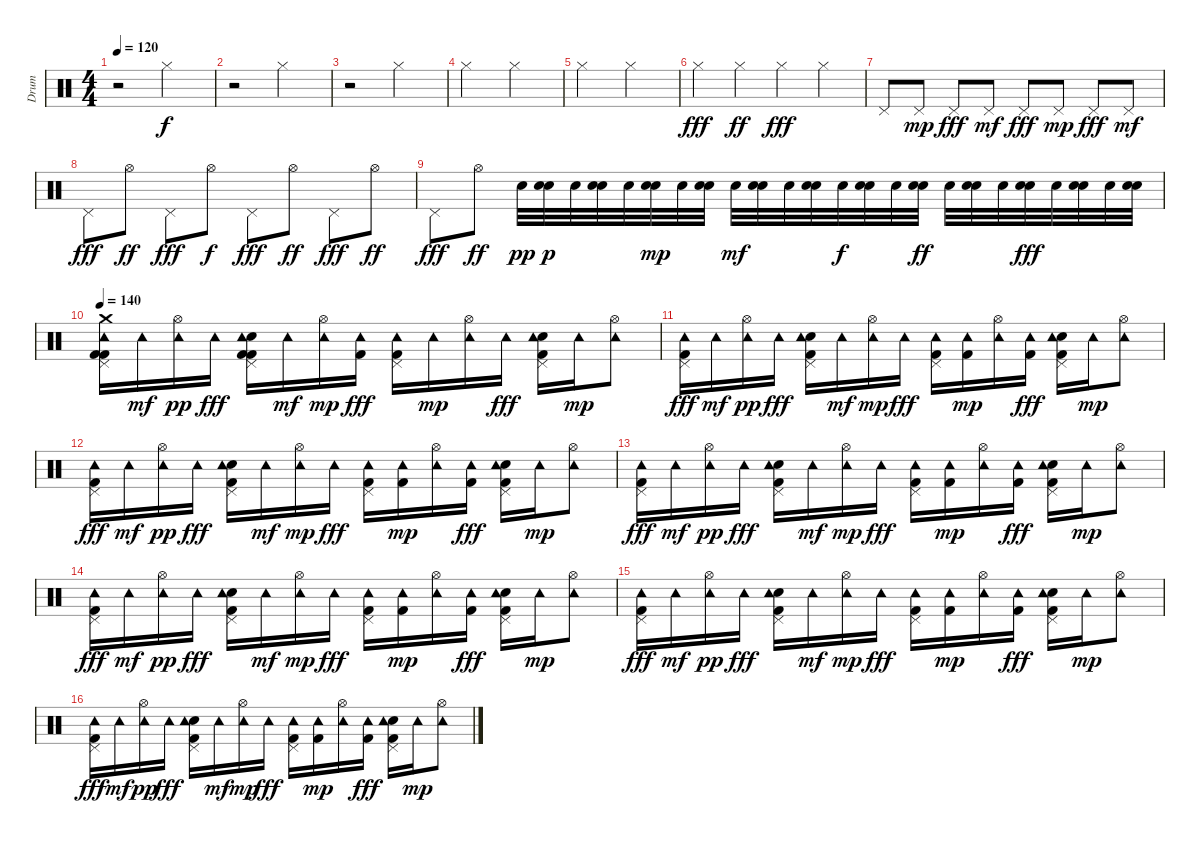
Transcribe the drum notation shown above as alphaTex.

\track ("Drum" "Drum") {instrument percussion}
\staff {score}
\articulation defaults
\ts (4 4)
\tempo 120
\clef neutral
\ks c
r.2{dy f} "Hi-Hat (closed)".2 |
r.2 "Hi-Hat (closed)".2 |
r.2 "Hi-Hat (closed)".2 |
"Hi-Hat (closed)".2 "Hi-Hat (closed)".2 |
"Hi-Hat (closed)".2 "Hi-Hat (closed)".2 |
"Hi-Hat (closed)".4{dy fff} "Hi-Hat (closed)".4{dy ff} "Hi-Hat (closed)".4{dy fff} "Hi-Hat (closed)".4 |
"Pedal Hi-Hat (hit)".8 "Pedal Hi-Hat (hit)".8{dy mp} "Pedal Hi-Hat (hit)".8{dy fff} "Pedal Hi-Hat (hit)".8{dy mf} "Pedal Hi-Hat (hit)".8{dy fff} "Pedal Hi-Hat (hit)".8{dy mp} "Pedal Hi-Hat (hit)".8{dy fff} "Pedal Hi-Hat (hit)".8{dy mf} |
"Pedal Hi-Hat (hit)".8{dy fff} "Hi-Hat (open)".8{dy ff} "Pedal Hi-Hat (hit)".8{dy fff} "Hi-Hat (open)".8{dy f} "Pedal Hi-Hat (hit)".8{dy fff} "Hi-Hat (open)".8{dy ff} "Pedal Hi-Hat (hit)".8{dy fff} "Hi-Hat (open)".8{dy ff} |
"Pedal Hi-Hat (hit)".8{dy fff} "Hi-Hat (open)".8{dy ff} "Snare (hit) 2".32{dy pp} ("Snare (hit) 2" "Snare (hit) 2").32{dy p} "Snare (hit) 2".32 ("Snare (hit) 2" "Snare (hit) 2").32 "Snare (hit) 2".32 ("Snare (hit) 2" "Snare (hit) 2").32{dy mp} "Snare (hit) 2".32 ("Snare (hit) 2" "Snare (hit) 2").32 "Snare (hit) 2".32{dy mf} ("Snare (hit) 2" "Snare (hit) 2").32 "Snare (hit) 2".32 ("Snare (hit) 2" "Snare (hit) 2").32 "Snare (hit) 2".32{dy f} ("Snare (hit) 2" "Snare (hit) 2").32 "Snare (hit) 2".32 ("Snare (hit) 2" "Snare (hit) 2").32{dy ff} "Snare (hit) 2".32 ("Snare (hit) 2" "Snare (hit) 2").32 "Snare (hit) 2".32 ("Snare (hit) 2" "Snare (hit) 2").32{dy fff} "Snare (hit) 2".32 ("Snare (hit) 2" "Snare (hit) 2").32 "Snare (hit) 2".32 ("Snare (hit) 2" "Snare (hit) 2").32 |
\tempo 140
("Crash medium (hit)" "Kick (hit) 2" "Tambourine (hit)" "Kick (hit) 2" "Pedal Hi-Hat (hit)").16 "Tambourine (hit)".16{dy mf} ("Hi-Hat (open)" "Tambourine (hit)").16{dy pp} "Tambourine (hit)".16{dy fff} ("Kick (hit) 2" "Snare (hit) 2" "Tambourine (hit)" "Kick (hit) 2" "Pedal Hi-Hat (hit)").16 "Tambourine (hit)".16{dy mf} ("Hi-Hat (open)" "Tambourine (hit)").16{dy mp} ("Kick (hit) 2" "Tambourine (hit)").16{dy fff} ("Tambourine (hit)" "Kick (hit) 2" "Pedal Hi-Hat (hit)").16 "Tambourine (hit)".16{dy mp} ("Hi-Hat (open)" "Tambourine (hit)").16 "Tambourine (hit)".16{dy fff} ("Snare (hit) 2" "Tambourine (hit)" "Kick (hit) 2" "Pedal Hi-Hat (hit)").16 "Tambourine (hit)".16{dy mp} ("Hi-Hat (open)" "Tambourine (hit)").8 |
("Tambourine (hit)" "Kick (hit) 2" "Pedal Hi-Hat (hit)").16{dy fff} "Tambourine (hit)".16{dy mf} ("Hi-Hat (open)" "Tambourine (hit)").16{dy pp} "Tambourine (hit)".16{dy fff} ("Snare (hit) 2" "Tambourine (hit)" "Kick (hit) 2" "Pedal Hi-Hat (hit)").16 "Tambourine (hit)".16{dy mf} ("Hi-Hat (open)" "Tambourine (hit)").16{dy mp} "Tambourine (hit)".16{dy fff} ("Tambourine (hit)" "Kick (hit) 2" "Pedal Hi-Hat (hit)").16 ("Kick (hit) 2" "Tambourine (hit)").16{dy mp} ("Hi-Hat (open)" "Tambourine (hit)").16 ("Kick (hit) 2" "Tambourine (hit)").16{dy fff} ("Snare (hit) 2" "Tambourine (hit)" "Kick (hit) 2" "Pedal Hi-Hat (hit)").16 "Tambourine (hit)".16{dy mp} ("Hi-Hat (open)" "Tambourine (hit)").8 |
("Tambourine (hit)" "Kick (hit) 2" "Pedal Hi-Hat (hit)").16{dy fff} "Tambourine (hit)".16{dy mf} ("Hi-Hat (open)" "Tambourine (hit)").16{dy pp} "Tambourine (hit)".16{dy fff} ("Snare (hit) 2" "Tambourine (hit)" "Kick (hit) 2" "Pedal Hi-Hat (hit)").16 "Tambourine (hit)".16{dy mf} ("Hi-Hat (open)" "Tambourine (hit)").16{dy mp} "Tambourine (hit)".16{dy fff} ("Tambourine (hit)" "Kick (hit) 2" "Pedal Hi-Hat (hit)").16 ("Kick (hit) 2" "Tambourine (hit)").16{dy mp} ("Hi-Hat (open)" "Tambourine (hit)").16 ("Kick (hit) 2" "Tambourine (hit)").16{dy fff} ("Snare (hit) 2" "Tambourine (hit)" "Kick (hit) 2" "Pedal Hi-Hat (hit)").16 "Tambourine (hit)".16{dy mp} ("Hi-Hat (open)" "Tambourine (hit)").8 |
("Tambourine (hit)" "Kick (hit) 2" "Pedal Hi-Hat (hit)").16{dy fff} "Tambourine (hit)".16{dy mf} ("Hi-Hat (open)" "Tambourine (hit)").16{dy pp} "Tambourine (hit)".16{dy fff} ("Snare (hit) 2" "Tambourine (hit)" "Kick (hit) 2" "Pedal Hi-Hat (hit)").16 "Tambourine (hit)".16{dy mf} ("Hi-Hat (open)" "Tambourine (hit)").16{dy mp} "Tambourine (hit)".16{dy fff} ("Tambourine (hit)" "Kick (hit) 2" "Pedal Hi-Hat (hit)").16 ("Kick (hit) 2" "Tambourine (hit)").16{dy mp} ("Hi-Hat (open)" "Tambourine (hit)").16 ("Kick (hit) 2" "Tambourine (hit)").16{dy fff} ("Snare (hit) 2" "Tambourine (hit)" "Kick (hit) 2" "Pedal Hi-Hat (hit)").16 "Tambourine (hit)".16{dy mp} ("Hi-Hat (open)" "Tambourine (hit)").8 |
("Tambourine (hit)" "Kick (hit) 2" "Pedal Hi-Hat (hit)").16{dy fff} "Tambourine (hit)".16{dy mf} ("Hi-Hat (open)" "Tambourine (hit)").16{dy pp} "Tambourine (hit)".16{dy fff} ("Snare (hit) 2" "Tambourine (hit)" "Kick (hit) 2" "Pedal Hi-Hat (hit)").16 "Tambourine (hit)".16{dy mf} ("Hi-Hat (open)" "Tambourine (hit)").16{dy mp} "Tambourine (hit)".16{dy fff} ("Tambourine (hit)" "Kick (hit) 2" "Pedal Hi-Hat (hit)").16 ("Kick (hit) 2" "Tambourine (hit)").16{dy mp} ("Hi-Hat (open)" "Tambourine (hit)").16 ("Kick (hit) 2" "Tambourine (hit)").16{dy fff} ("Snare (hit) 2" "Tambourine (hit)" "Kick (hit) 2" "Pedal Hi-Hat (hit)").16 "Tambourine (hit)".16{dy mp} ("Hi-Hat (open)" "Tambourine (hit)").8 |
("Tambourine (hit)" "Kick (hit) 2" "Pedal Hi-Hat (hit)").16{dy fff} "Tambourine (hit)".16{dy mf} ("Hi-Hat (open)" "Tambourine (hit)").16{dy pp} "Tambourine (hit)".16{dy fff} ("Snare (hit) 2" "Tambourine (hit)" "Kick (hit) 2" "Pedal Hi-Hat (hit)").16 "Tambourine (hit)".16{dy mf} ("Hi-Hat (open)" "Tambourine (hit)").16{dy mp} "Tambourine (hit)".16{dy fff} ("Tambourine (hit)" "Kick (hit) 2" "Pedal Hi-Hat (hit)").16 ("Kick (hit) 2" "Tambourine (hit)").16{dy mp} ("Hi-Hat (open)" "Tambourine (hit)").16 ("Kick (hit) 2" "Tambourine (hit)").16{dy fff} ("Snare (hit) 2" "Tambourine (hit)" "Kick (hit) 2" "Pedal Hi-Hat (hit)").16 "Tambourine (hit)".16{dy mp} ("Hi-Hat (open)" "Tambourine (hit)").8 |
("Tambourine (hit)" "Kick (hit) 2" "Pedal Hi-Hat (hit)").16{dy fff} "Tambourine (hit)".16{dy mf} ("Hi-Hat (open)" "Tambourine (hit)").16{dy pp} "Tambourine (hit)".16{dy fff} ("Snare (hit) 2" "Tambourine (hit)" "Kick (hit) 2" "Pedal Hi-Hat (hit)").16 "Tambourine (hit)".16{dy mf} ("Hi-Hat (open)" "Tambourine (hit)").16{dy mp} "Tambourine (hit)".16{dy fff} ("Tambourine (hit)" "Kick (hit) 2" "Pedal Hi-Hat (hit)").16 ("Kick (hit) 2" "Tambourine (hit)").16{dy mp} ("Hi-Hat (open)" "Tambourine (hit)").16 ("Kick (hit) 2" "Tambourine (hit)").16{dy fff} ("Snare (hit) 2" "Tambourine (hit)" "Kick (hit) 2" "Pedal Hi-Hat (hit)").16 "Tambourine (hit)".16{dy mp} ("Hi-Hat (open)" "Tambourine (hit)").8
